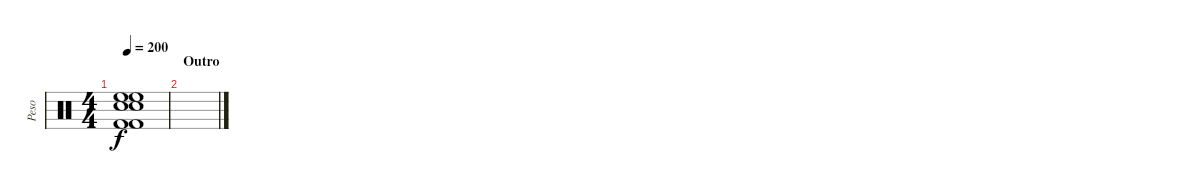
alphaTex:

\track ("Peso" "Peso") {instrument percussion}
\staff {score}
\articulation defaults
\ts (4 4)
\tempo 200
\clef neutral
\ks c
("Kick (hit) 2" "High Floor Tom (hit)" "High Floor Tom (hit)" "Snare (hit) 2" "Snare (hit) 2" "Kick (hit) 2").1{dy f} |
\section ("" "Outro")
